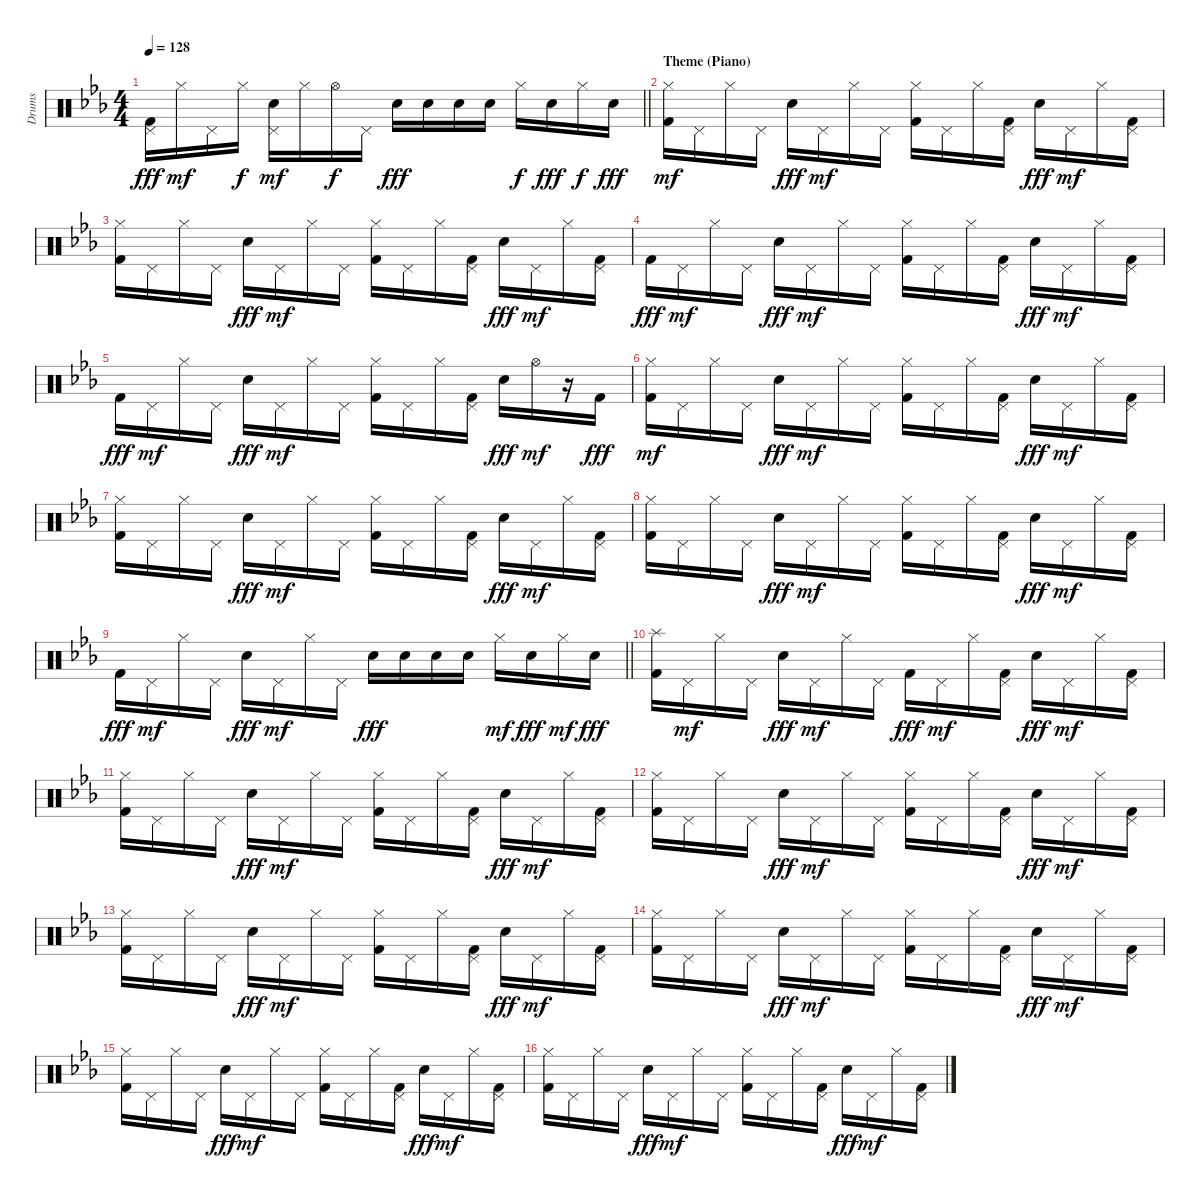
\track ("Drums" "Drums") {instrument percussion}
\staff {score}
\articulation defaults
\ts (4 4)
\tempo 128
\clef neutral
\barLineRight lightlight
\ks cminor
("Kick (hit) 2" "Pedal Hi-Hat (hit)").16{dy fff} "Hi-Hat (closed)".16{dy mf} "Pedal Hi-Hat (hit)".16 "Hi-Hat (closed)".16{dy f} ("Electric Snare (hit)" "Pedal Hi-Hat (hit)").16{dy mf} "Hi-Hat (closed)".16 "Hi-Hat (open)".16{dy f} "Pedal Hi-Hat (hit)".16 "Electric Snare (hit)".16{dy fff} "Electric Snare (hit)".16 "Electric Snare (hit)".16 "Electric Snare (hit)".16 "Hi-Hat (closed)".16{dy f} "Electric Snare (hit)".16{dy fff} "Hi-Hat (closed)".16{dy f} "Electric Snare (hit)".16{dy fff} |
\section ("" "Theme (Piano)")
("Kick (hit) 2" "Hi-Hat (closed)").16{dy mf} "Pedal Hi-Hat (hit)".16 "Hi-Hat (closed)".16 "Pedal Hi-Hat (hit)".16 "Electric Snare (hit)".16{dy fff} "Pedal Hi-Hat (hit)".16{dy mf} "Hi-Hat (closed)".16 "Pedal Hi-Hat (hit)".16 ("Kick (hit) 2" "Hi-Hat (closed)").16 "Pedal Hi-Hat (hit)".16 "Hi-Hat (closed)".16 ("Kick (hit) 2" "Pedal Hi-Hat (hit)").16 "Electric Snare (hit)".16{dy fff} "Pedal Hi-Hat (hit)".16{dy mf} "Hi-Hat (closed)".16 ("Kick (hit) 2" "Pedal Hi-Hat (hit)").16 |
("Kick (hit) 2" "Hi-Hat (closed)").16 "Pedal Hi-Hat (hit)".16 "Hi-Hat (closed)".16 "Pedal Hi-Hat (hit)".16 "Electric Snare (hit)".16{dy fff} "Pedal Hi-Hat (hit)".16{dy mf} "Hi-Hat (closed)".16 "Pedal Hi-Hat (hit)".16 ("Kick (hit) 2" "Hi-Hat (closed)").16 "Pedal Hi-Hat (hit)".16 "Hi-Hat (closed)".16 ("Kick (hit) 2" "Pedal Hi-Hat (hit)").16 "Electric Snare (hit)".16{dy fff} "Pedal Hi-Hat (hit)".16{dy mf} "Hi-Hat (closed)".16 ("Kick (hit) 2" "Pedal Hi-Hat (hit)").16 |
"Kick (hit) 2".16{dy fff} "Pedal Hi-Hat (hit)".16{dy mf} "Hi-Hat (closed)".16 "Pedal Hi-Hat (hit)".16 "Electric Snare (hit)".16{dy fff} "Pedal Hi-Hat (hit)".16{dy mf} "Hi-Hat (closed)".16 "Pedal Hi-Hat (hit)".16 ("Kick (hit) 2" "Hi-Hat (closed)").16 "Pedal Hi-Hat (hit)".16 "Hi-Hat (closed)".16 ("Kick (hit) 2" "Pedal Hi-Hat (hit)").16 "Electric Snare (hit)".16{dy fff} "Pedal Hi-Hat (hit)".16{dy mf} "Hi-Hat (closed)".16 ("Kick (hit) 2" "Pedal Hi-Hat (hit)").16 |
"Kick (hit) 2".16{dy fff} "Pedal Hi-Hat (hit)".16{dy mf} "Hi-Hat (closed)".16 "Pedal Hi-Hat (hit)".16 "Electric Snare (hit)".16{dy fff} "Pedal Hi-Hat (hit)".16{dy mf} "Hi-Hat (closed)".16 "Pedal Hi-Hat (hit)".16 ("Kick (hit) 2" "Hi-Hat (closed)").16 "Pedal Hi-Hat (hit)".16 "Hi-Hat (closed)".16 ("Kick (hit) 2" "Pedal Hi-Hat (hit)").16 "Electric Snare (hit)".16{dy fff} "Hi-Hat (open)".16{dy mf} r.16 "Kick (hit) 2".16{dy fff} |
("Kick (hit) 2" "Hi-Hat (closed)").16{dy mf} "Pedal Hi-Hat (hit)".16 "Hi-Hat (closed)".16 "Pedal Hi-Hat (hit)".16 "Electric Snare (hit)".16{dy fff} "Pedal Hi-Hat (hit)".16{dy mf} "Hi-Hat (closed)".16 "Pedal Hi-Hat (hit)".16 ("Kick (hit) 2" "Hi-Hat (closed)").16 "Pedal Hi-Hat (hit)".16 "Hi-Hat (closed)".16 ("Kick (hit) 2" "Pedal Hi-Hat (hit)").16 "Electric Snare (hit)".16{dy fff} "Pedal Hi-Hat (hit)".16{dy mf} "Hi-Hat (closed)".16 ("Kick (hit) 2" "Pedal Hi-Hat (hit)").16 |
("Kick (hit) 2" "Hi-Hat (closed)").16 "Pedal Hi-Hat (hit)".16 "Hi-Hat (closed)".16 "Pedal Hi-Hat (hit)".16 "Electric Snare (hit)".16{dy fff} "Pedal Hi-Hat (hit)".16{dy mf} "Hi-Hat (closed)".16 "Pedal Hi-Hat (hit)".16 ("Kick (hit) 2" "Hi-Hat (closed)").16 "Pedal Hi-Hat (hit)".16 "Hi-Hat (closed)".16 ("Kick (hit) 2" "Pedal Hi-Hat (hit)").16 "Electric Snare (hit)".16{dy fff} "Pedal Hi-Hat (hit)".16{dy mf} "Hi-Hat (closed)".16 ("Kick (hit) 2" "Pedal Hi-Hat (hit)").16 |
("Kick (hit) 2" "Hi-Hat (closed)").16 "Pedal Hi-Hat (hit)".16 "Hi-Hat (closed)".16 "Pedal Hi-Hat (hit)".16 "Electric Snare (hit)".16{dy fff} "Pedal Hi-Hat (hit)".16{dy mf} "Hi-Hat (closed)".16 "Pedal Hi-Hat (hit)".16 ("Kick (hit) 2" "Hi-Hat (closed)").16 "Pedal Hi-Hat (hit)".16 "Hi-Hat (closed)".16 ("Kick (hit) 2" "Pedal Hi-Hat (hit)").16 "Electric Snare (hit)".16{dy fff} "Pedal Hi-Hat (hit)".16{dy mf} "Hi-Hat (closed)".16 ("Kick (hit) 2" "Pedal Hi-Hat (hit)").16 |
\barLineRight lightlight "Kick (hit) 2".16{dy fff} "Pedal Hi-Hat (hit)".16{dy mf} "Hi-Hat (closed)".16 "Pedal Hi-Hat (hit)".16 "Electric Snare (hit)".16{dy fff} "Pedal Hi-Hat (hit)".16{dy mf} "Hi-Hat (closed)".16 "Pedal Hi-Hat (hit)".16 "Electric Snare (hit)".16{dy fff} "Electric Snare (hit)".16 "Electric Snare (hit)".16 "Electric Snare (hit)".16 "Hi-Hat (closed)".16{dy mf} "Electric Snare (hit)".16{dy fff} "Hi-Hat (closed)".16{dy mf} "Electric Snare (hit)".16{dy fff}
|
("Kick (hit) 2" "Splash (hit)").16 "Pedal Hi-Hat (hit)".16{dy mf} "Hi-Hat (closed)".16 "Pedal Hi-Hat (hit)".16 "Electric Snare (hit)".16{dy fff} "Pedal Hi-Hat (hit)".16{dy mf} "Hi-Hat (closed)".16 "Pedal Hi-Hat (hit)".16 "Kick (hit) 2".16{dy fff} "Pedal Hi-Hat (hit)".16{dy mf} "Hi-Hat (closed)".16 ("Kick (hit) 2" "Pedal Hi-Hat (hit)").16 "Electric Snare (hit)".16{dy fff} "Pedal Hi-Hat (hit)".16{dy mf} "Hi-Hat (closed)".16 ("Kick (hit) 2" "Pedal Hi-Hat (hit)").16 |
("Kick (hit) 2" "Hi-Hat (closed)").16 "Pedal Hi-Hat (hit)".16 "Hi-Hat (closed)".16 "Pedal Hi-Hat (hit)".16 "Electric Snare (hit)".16{dy fff} "Pedal Hi-Hat (hit)".16{dy mf} "Hi-Hat (closed)".16 "Pedal Hi-Hat (hit)".16 ("Kick (hit) 2" "Hi-Hat (closed)").16 "Pedal Hi-Hat (hit)".16 "Hi-Hat (closed)".16 ("Kick (hit) 2" "Pedal Hi-Hat (hit)").16 "Electric Snare (hit)".16{dy fff} "Pedal Hi-Hat (hit)".16{dy mf} "Hi-Hat (closed)".16 ("Kick (hit) 2" "Pedal Hi-Hat (hit)").16 |
("Kick (hit) 2" "Hi-Hat (closed)").16 "Pedal Hi-Hat (hit)".16 "Hi-Hat (closed)".16 "Pedal Hi-Hat (hit)".16 "Electric Snare (hit)".16{dy fff} "Pedal Hi-Hat (hit)".16{dy mf} "Hi-Hat (closed)".16 "Pedal Hi-Hat (hit)".16 ("Kick (hit) 2" "Hi-Hat (closed)").16 "Pedal Hi-Hat (hit)".16 "Hi-Hat (closed)".16 ("Kick (hit) 2" "Pedal Hi-Hat (hit)").16 "Electric Snare (hit)".16{dy fff} "Pedal Hi-Hat (hit)".16{dy mf} "Hi-Hat (closed)".16 ("Kick (hit) 2" "Pedal Hi-Hat (hit)").16 |
("Kick (hit) 2" "Hi-Hat (closed)").16 "Pedal Hi-Hat (hit)".16 "Hi-Hat (closed)".16 "Pedal Hi-Hat (hit)".16 "Electric Snare (hit)".16{dy fff} "Pedal Hi-Hat (hit)".16{dy mf} "Hi-Hat (closed)".16 "Pedal Hi-Hat (hit)".16 ("Kick (hit) 2" "Hi-Hat (closed)").16 "Pedal Hi-Hat (hit)".16 "Hi-Hat (closed)".16 ("Kick (hit) 2" "Pedal Hi-Hat (hit)").16 "Electric Snare (hit)".16{dy fff} "Pedal Hi-Hat (hit)".16{dy mf} "Hi-Hat (closed)".16 ("Kick (hit) 2" "Pedal Hi-Hat (hit)").16 |
("Kick (hit) 2" "Hi-Hat (closed)").16 "Pedal Hi-Hat (hit)".16 "Hi-Hat (closed)".16 "Pedal Hi-Hat (hit)".16 "Electric Snare (hit)".16{dy fff} "Pedal Hi-Hat (hit)".16{dy mf} "Hi-Hat (closed)".16 "Pedal Hi-Hat (hit)".16 ("Kick (hit) 2" "Hi-Hat (closed)").16 "Pedal Hi-Hat (hit)".16 "Hi-Hat (closed)".16 ("Kick (hit) 2" "Pedal Hi-Hat (hit)").16 "Electric Snare (hit)".16{dy fff} "Pedal Hi-Hat (hit)".16{dy mf} "Hi-Hat (closed)".16 ("Kick (hit) 2" "Pedal Hi-Hat (hit)").16 |
("Kick (hit) 2" "Hi-Hat (closed)").16 "Pedal Hi-Hat (hit)".16 "Hi-Hat (closed)".16 "Pedal Hi-Hat (hit)".16 "Electric Snare (hit)".16{dy fff} "Pedal Hi-Hat (hit)".16{dy mf} "Hi-Hat (closed)".16 "Pedal Hi-Hat (hit)".16 ("Kick (hit) 2" "Hi-Hat (closed)").16 "Pedal Hi-Hat (hit)".16 "Hi-Hat (closed)".16 ("Kick (hit) 2" "Pedal Hi-Hat (hit)").16 "Electric Snare (hit)".16{dy fff} "Pedal Hi-Hat (hit)".16{dy mf} "Hi-Hat (closed)".16 ("Kick (hit) 2" "Pedal Hi-Hat (hit)").16 |
("Kick (hit) 2" "Hi-Hat (closed)").16 "Pedal Hi-Hat (hit)".16 "Hi-Hat (closed)".16 "Pedal Hi-Hat (hit)".16 "Electric Snare (hit)".16{dy fff} "Pedal Hi-Hat (hit)".16{dy mf} "Hi-Hat (closed)".16 "Pedal Hi-Hat (hit)".16 ("Kick (hit) 2" "Hi-Hat (closed)").16 "Pedal Hi-Hat (hit)".16 "Hi-Hat (closed)".16 ("Kick (hit) 2" "Pedal Hi-Hat (hit)").16 "Electric Snare (hit)".16{dy fff} "Pedal Hi-Hat (hit)".16{dy mf} "Hi-Hat (closed)".16 ("Kick (hit) 2" "Pedal Hi-Hat (hit)").16
